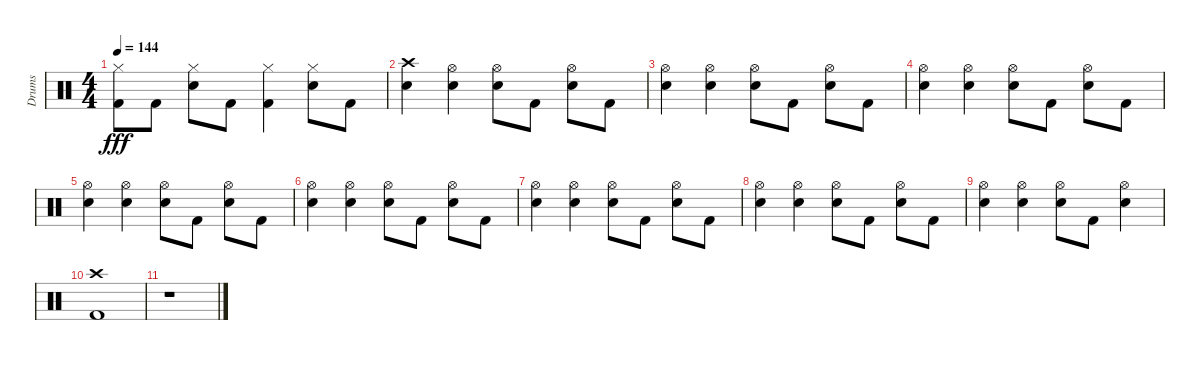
\track ("Drums" "Drums") {instrument percussion}
\staff {score}
\articulation defaults
\ts (4 4)
\tempo 144
\clef neutral
\ks c
("Hi-Hat (closed)" "Kick (hit) 2").8{dy fff} "Kick (hit) 2".8 ("Hi-Hat (closed)" "Snare (hit) 2").8 "Kick (hit) 2".8 ("Hi-Hat (closed)" "Kick (hit) 2").4 ("Hi-Hat (closed)" "Snare (hit) 2").8 "Kick (hit) 2".8 |
("Crash high (hit)" "Snare (hit) 2").4 ("Hi-Hat (open)" "Snare (hit) 2").4 ("Hi-Hat (open)" "Snare (hit) 2").8 "Kick (hit) 2".8 ("Hi-Hat (open)" "Snare (hit) 2").8 "Kick (hit) 2".8 |
("Hi-Hat (open)" "Snare (hit) 2").4 ("Hi-Hat (open)" "Snare (hit) 2").4 ("Hi-Hat (open)" "Snare (hit) 2").8 "Kick (hit) 2".8 ("Hi-Hat (open)" "Snare (hit) 2").8 "Kick (hit) 2".8 |
("Hi-Hat (open)" "Snare (hit) 2").4 ("Hi-Hat (open)" "Snare (hit) 2").4 ("Hi-Hat (open)" "Snare (hit) 2").8 "Kick (hit) 2".8 ("Hi-Hat (open)" "Snare (hit) 2").8 "Kick (hit) 2".8 |
("Hi-Hat (open)" "Snare (hit) 2").4 ("Hi-Hat (open)" "Snare (hit) 2").4 ("Hi-Hat (open)" "Snare (hit) 2").8 "Kick (hit) 2".8 ("Hi-Hat (open)" "Snare (hit) 2").8 "Kick (hit) 2".8 |
("Hi-Hat (open)" "Snare (hit) 2").4 ("Hi-Hat (open)" "Snare (hit) 2").4 ("Hi-Hat (open)" "Snare (hit) 2").8 "Kick (hit) 2".8 ("Hi-Hat (open)" "Snare (hit) 2").8 "Kick (hit) 2".8 |
("Hi-Hat (open)" "Snare (hit) 2").4 ("Hi-Hat (open)" "Snare (hit) 2").4 ("Hi-Hat (open)" "Snare (hit) 2").8 "Kick (hit) 2".8 ("Hi-Hat (open)" "Snare (hit) 2").8 "Kick (hit) 2".8 |
("Hi-Hat (open)" "Snare (hit) 2").4 ("Hi-Hat (open)" "Snare (hit) 2").4 ("Hi-Hat (open)" "Snare (hit) 2").8 "Kick (hit) 2".8 ("Hi-Hat (open)" "Snare (hit) 2").8 "Kick (hit) 2".8 |
("Hi-Hat (open)" "Snare (hit) 2").4 ("Hi-Hat (open)" "Snare (hit) 2").4 ("Hi-Hat (open)" "Snare (hit) 2").8 "Kick (hit) 2".8 ("Hi-Hat (open)" "Snare (hit) 2").4 |
("Crash high (hit)" "Kick (hit) 2").1 |
r.1
